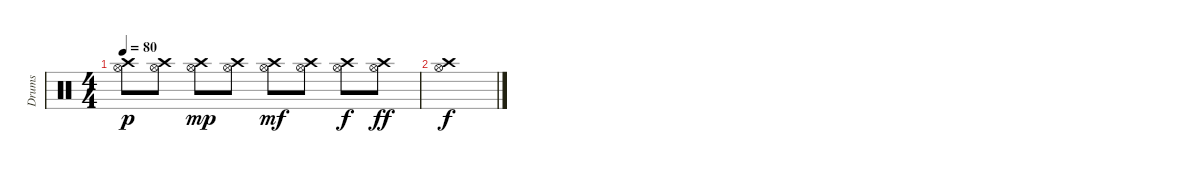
\track ("Drums" "Drums") {instrument percussion}
\staff {score}
\articulation defaults
\ts (4 4)
\tempo 80
\clef neutral
\ks c
("Hi-Hat (open)" "Crash high (hit)").8{dy p} ("Hi-Hat (open)" "Crash high (hit)").8 ("Hi-Hat (open)" "Crash high (hit)").8{dy mp} ("Hi-Hat (open)" "Crash high (hit)").8 ("Hi-Hat (open)" "Crash high (hit)").8{dy mf} ("Hi-Hat (open)" "Crash high (hit)").8 ("Hi-Hat (open)" "Crash high (hit)").8{dy f} ("Hi-Hat (open)" "Crash high (hit)").8{dy ff} |
("Crash high (hit)" "Hi-Hat (open)").1{dy f}
